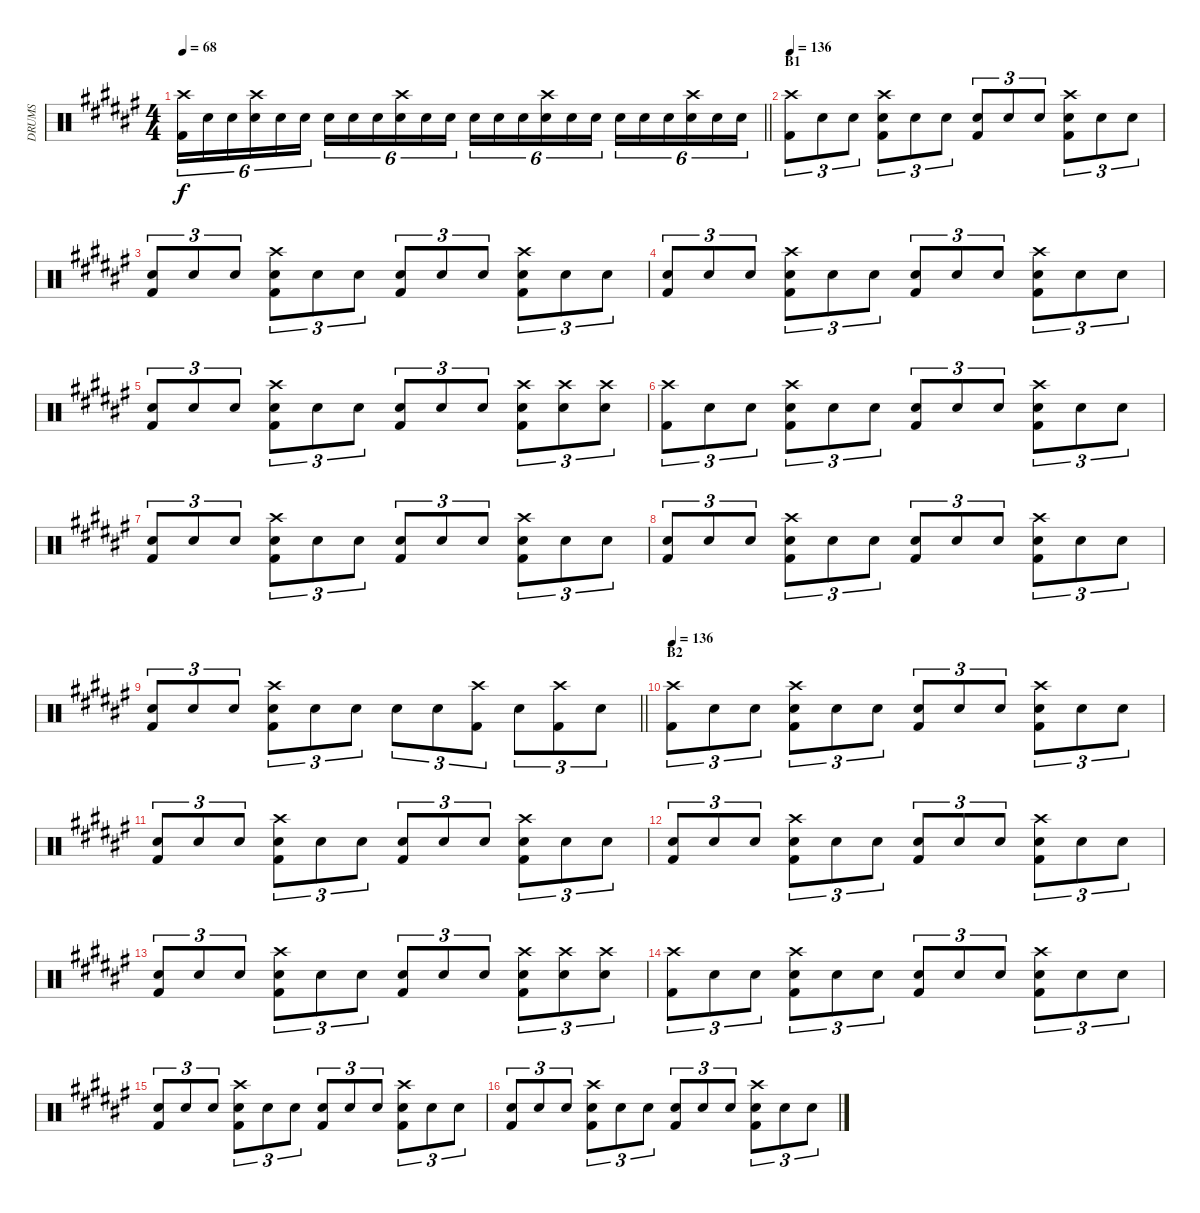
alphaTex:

\track ("DRUMS" "DRUMS") {instrument percussion}
\staff {score}
\articulation defaults
\ts (4 4)
\tempo 68
\clef neutral
\barLineRight lightlight
\ks f#
("Crash high (hit)" "Kick (hit) 2").16{tu (6 4) dy f} "Snare (hit) 2".16{tu (6 4)} "Snare (hit) 2".16{tu (6 4)} ("Crash high (hit)" "Snare (hit) 2").16{tu (6 4)} "Snare (hit) 2".16{tu (6 4)} "Snare (hit) 2".16{tu (6 4)} "Snare (hit) 2".16{tu (6 4)} "Snare (hit) 2".16{tu (6 4)} "Snare (hit) 2".16{tu (6 4)} ("Crash high (hit)" "Snare (hit) 2").16{tu (6 4)} "Snare (hit) 2".16{tu (6 4)} "Snare (hit) 2".16{tu (6 4)} "Snare (hit) 2".16{tu (6 4)} "Snare (hit) 2".16{tu (6 4)} "Snare (hit) 2".16{tu (6 4)} ("Crash high (hit)" "Snare (hit) 2").16{tu (6 4)} "Snare (hit) 2".16{tu (6 4)} "Snare (hit) 2".16{tu (6 4)} "Snare (hit) 2".16{tu (6 4)} "Snare (hit) 2".16{tu (6 4)} "Snare (hit) 2".16{tu (6 4)} ("Crash high (hit)" "Snare (hit) 2").16{tu (6 4)} "Snare (hit) 2".16{tu (6 4)} "Snare (hit) 2".16{tu (6 4)} |
\section ("" "B1")
\tempo 136
("Crash high (hit)" "Kick (hit) 2").8{tu (3 2)} "Snare (hit) 2".8{tu (3 2)} "Snare (hit) 2".8{tu (3 2)} ("Crash high (hit)" "Kick (hit) 2" "Snare (hit) 2").8{tu (3 2)} "Snare (hit) 2".8{tu (3 2)} "Snare (hit) 2".8{tu (3 2)} ("Kick (hit) 2" "Snare (hit) 2").8{tu (3 2)} "Snare (hit) 2".8{tu (3 2)} "Snare (hit) 2".8{tu (3 2)} ("Crash high (hit)" "Kick (hit) 2" "Snare (hit) 2").8{tu (3 2)} "Snare (hit) 2".8{tu (3 2)} "Snare (hit) 2".8{tu (3 2)} |
("Snare (hit) 2" "Kick (hit) 2").8{tu (3 2)} "Snare (hit) 2".8{tu (3 2)} "Snare (hit) 2".8{tu (3 2)} ("Crash high (hit)" "Snare (hit) 2" "Kick (hit) 2").8{tu (3 2)} "Snare (hit) 2".8{tu (3 2)} "Snare (hit) 2".8{tu (3 2)} ("Snare (hit) 2" "Kick (hit) 2").8{tu (3 2)} "Snare (hit) 2".8{tu (3 2)} "Snare (hit) 2".8{tu (3 2)} ("Crash high (hit)" "Snare (hit) 2" "Kick (hit) 2").8{tu (3 2)} "Snare (hit) 2".8{tu (3 2)} "Snare (hit) 2".8{tu (3 2)} |
("Snare (hit) 2" "Kick (hit) 2").8{tu (3 2)} "Snare (hit) 2".8{tu (3 2)} "Snare (hit) 2".8{tu (3 2)} ("Crash high (hit)" "Snare (hit) 2" "Kick (hit) 2").8{tu (3 2)} "Snare (hit) 2".8{tu (3 2)} "Snare (hit) 2".8{tu (3 2)} ("Snare (hit) 2" "Kick (hit) 2").8{tu (3 2)} "Snare (hit) 2".8{tu (3 2)} "Snare (hit) 2".8{tu (3 2)} ("Crash high (hit)" "Snare (hit) 2" "Kick (hit) 2").8{tu (3 2)} "Snare (hit) 2".8{tu (3 2)} "Snare (hit) 2".8{tu (3 2)} |
("Snare (hit) 2" "Kick (hit) 2").8{tu (3 2)} "Snare (hit) 2".8{tu (3 2)} "Snare (hit) 2".8{tu (3 2)} ("Crash high (hit)" "Snare (hit) 2" "Kick (hit) 2").8{tu (3 2)} "Snare (hit) 2".8{tu (3 2)} "Snare (hit) 2".8{tu (3 2)} ("Snare (hit) 2" "Kick (hit) 2").8{tu (3 2)} "Snare (hit) 2".8{tu (3 2)} "Snare (hit) 2".8{tu (3 2)} ("Crash high (hit)" "Snare (hit) 2" "Kick (hit) 2").8{tu (3 2)} ("Crash high (hit)" "Snare (hit) 2").8{tu (3 2)} ("Crash high (hit)" "Snare (hit) 2").8{tu (3 2)} |
("Crash high (hit)" "Kick (hit) 2").8{tu (3 2)} "Snare (hit) 2".8{tu (3 2)} "Snare (hit) 2".8{tu (3 2)} ("Crash high (hit)" "Kick (hit) 2" "Snare (hit) 2").8{tu (3 2)} "Snare (hit) 2".8{tu (3 2)} "Snare (hit) 2".8{tu (3 2)} ("Kick (hit) 2" "Snare (hit) 2").8{tu (3 2)} "Snare (hit) 2".8{tu (3 2)} "Snare (hit) 2".8{tu (3 2)} ("Crash high (hit)" "Kick (hit) 2" "Snare (hit) 2").8{tu (3 2)} "Snare (hit) 2".8{tu (3 2)} "Snare (hit) 2".8{tu (3 2)} |
("Snare (hit) 2" "Kick (hit) 2").8{tu (3 2)} "Snare (hit) 2".8{tu (3 2)} "Snare (hit) 2".8{tu (3 2)} ("Crash high (hit)" "Snare (hit) 2" "Kick (hit) 2").8{tu (3 2)} "Snare (hit) 2".8{tu (3 2)} "Snare (hit) 2".8{tu (3 2)} ("Snare (hit) 2" "Kick (hit) 2").8{tu (3 2)} "Snare (hit) 2".8{tu (3 2)} "Snare (hit) 2".8{tu (3 2)} ("Crash high (hit)" "Snare (hit) 2" "Kick (hit) 2").8{tu (3 2)} "Snare (hit) 2".8{tu (3 2)} "Snare (hit) 2".8{tu (3 2)} |
("Snare (hit) 2" "Kick (hit) 2").8{tu (3 2)} "Snare (hit) 2".8{tu (3 2)} "Snare (hit) 2".8{tu (3 2)} ("Crash high (hit)" "Snare (hit) 2" "Kick (hit) 2").8{tu (3 2)} "Snare (hit) 2".8{tu (3 2)} "Snare (hit) 2".8{tu (3 2)} ("Snare (hit) 2" "Kick (hit) 2").8{tu (3 2)} "Snare (hit) 2".8{tu (3 2)} "Snare (hit) 2".8{tu (3 2)} ("Crash high (hit)" "Snare (hit) 2" "Kick (hit) 2").8{tu (3 2)} "Snare (hit) 2".8{tu (3 2)} "Snare (hit) 2".8{tu (3 2)} |
\barLineRight lightlight
("Snare (hit) 2" "Kick (hit) 2").8{tu (3 2)} "Snare (hit) 2".8{tu (3 2)} "Snare (hit) 2".8{tu (3 2)} ("Crash high (hit)" "Snare (hit) 2" "Kick (hit) 2").8{tu (3 2)} "Snare (hit) 2".8{tu (3 2)} "Snare (hit) 2".8{tu (3 2)} "Snare (hit) 2".8{tu (3 2)} "Snare (hit) 2".8{tu (3 2)} ("Crash high (hit)" "Kick (hit) 2").8{tu (3 2)} "Snare (hit) 2".8{tu (3 2)} ("Crash high (hit)" "Kick (hit) 2").8{tu (3 2)} "Snare (hit) 2".8{tu (3 2)} |
\section ("" "B2")
\tempo 136
("Crash high (hit)" "Kick (hit) 2").8{tu (3 2)} "Snare (hit) 2".8{tu (3 2)} "Snare (hit) 2".8{tu (3 2)} ("Crash high (hit)" "Kick (hit) 2" "Snare (hit) 2").8{tu (3 2)} "Snare (hit) 2".8{tu (3 2)} "Snare (hit) 2".8{tu (3 2)} ("Kick (hit) 2" "Snare (hit) 2").8{tu (3 2)} "Snare (hit) 2".8{tu (3 2)} "Snare (hit) 2".8{tu (3 2)} ("Crash high (hit)" "Kick (hit) 2" "Snare (hit) 2").8{tu (3 2)} "Snare (hit) 2".8{tu (3 2)} "Snare (hit) 2".8{tu (3 2)} |
("Snare (hit) 2" "Kick (hit) 2").8{tu (3 2)} "Snare (hit) 2".8{tu (3 2)} "Snare (hit) 2".8{tu (3 2)} ("Crash high (hit)" "Snare (hit) 2" "Kick (hit) 2").8{tu (3 2)} "Snare (hit) 2".8{tu (3 2)} "Snare (hit) 2".8{tu (3 2)} ("Snare (hit) 2" "Kick (hit) 2").8{tu (3 2)} "Snare (hit) 2".8{tu (3 2)} "Snare (hit) 2".8{tu (3 2)} ("Crash high (hit)" "Snare (hit) 2" "Kick (hit) 2").8{tu (3 2)} "Snare (hit) 2".8{tu (3 2)} "Snare (hit) 2".8{tu (3 2)} |
("Snare (hit) 2" "Kick (hit) 2").8{tu (3 2)} "Snare (hit) 2".8{tu (3 2)} "Snare (hit) 2".8{tu (3 2)} ("Crash high (hit)" "Snare (hit) 2" "Kick (hit) 2").8{tu (3 2)} "Snare (hit) 2".8{tu (3 2)} "Snare (hit) 2".8{tu (3 2)} ("Snare (hit) 2" "Kick (hit) 2").8{tu (3 2)} "Snare (hit) 2".8{tu (3 2)} "Snare (hit) 2".8{tu (3 2)} ("Crash high (hit)" "Snare (hit) 2" "Kick (hit) 2").8{tu (3 2)} "Snare (hit) 2".8{tu (3 2)} "Snare (hit) 2".8{tu (3 2)} |
("Snare (hit) 2" "Kick (hit) 2").8{tu (3 2)} "Snare (hit) 2".8{tu (3 2)} "Snare (hit) 2".8{tu (3 2)} ("Crash high (hit)" "Snare (hit) 2" "Kick (hit) 2").8{tu (3 2)} "Snare (hit) 2".8{tu (3 2)} "Snare (hit) 2".8{tu (3 2)} ("Snare (hit) 2" "Kick (hit) 2").8{tu (3 2)} "Snare (hit) 2".8{tu (3 2)} "Snare (hit) 2".8{tu (3 2)} ("Crash high (hit)" "Snare (hit) 2" "Kick (hit) 2").8{tu (3 2)} ("Crash high (hit)" "Snare (hit) 2").8{tu (3 2)} ("Crash high (hit)" "Snare (hit) 2").8{tu (3 2)} |
("Crash high (hit)" "Kick (hit) 2").8{tu (3 2)} "Snare (hit) 2".8{tu (3 2)} "Snare (hit) 2".8{tu (3 2)} ("Crash high (hit)" "Kick (hit) 2" "Snare (hit) 2").8{tu (3 2)} "Snare (hit) 2".8{tu (3 2)} "Snare (hit) 2".8{tu (3 2)} ("Kick (hit) 2" "Snare (hit) 2").8{tu (3 2)} "Snare (hit) 2".8{tu (3 2)} "Snare (hit) 2".8{tu (3 2)} ("Crash high (hit)" "Kick (hit) 2" "Snare (hit) 2").8{tu (3 2)} "Snare (hit) 2".8{tu (3 2)} "Snare (hit) 2".8{tu (3 2)} |
("Snare (hit) 2" "Kick (hit) 2").8{tu (3 2)} "Snare (hit) 2".8{tu (3 2)} "Snare (hit) 2".8{tu (3 2)} ("Crash high (hit)" "Snare (hit) 2" "Kick (hit) 2").8{tu (3 2)} "Snare (hit) 2".8{tu (3 2)} "Snare (hit) 2".8{tu (3 2)} ("Snare (hit) 2" "Kick (hit) 2").8{tu (3 2)} "Snare (hit) 2".8{tu (3 2)} "Snare (hit) 2".8{tu (3 2)} ("Crash high (hit)" "Snare (hit) 2" "Kick (hit) 2").8{tu (3 2)} "Snare (hit) 2".8{tu (3 2)} "Snare (hit) 2".8{tu (3 2)} |
("Snare (hit) 2" "Kick (hit) 2").8{tu (3 2)} "Snare (hit) 2".8{tu (3 2)} "Snare (hit) 2".8{tu (3 2)} ("Crash high (hit)" "Snare (hit) 2" "Kick (hit) 2").8{tu (3 2)} "Snare (hit) 2".8{tu (3 2)} "Snare (hit) 2".8{tu (3 2)} ("Snare (hit) 2" "Kick (hit) 2").8{tu (3 2)} "Snare (hit) 2".8{tu (3 2)} "Snare (hit) 2".8{tu (3 2)} ("Crash high (hit)" "Snare (hit) 2" "Kick (hit) 2").8{tu (3 2)} "Snare (hit) 2".8{tu (3 2)} "Snare (hit) 2".8{tu (3 2)}
